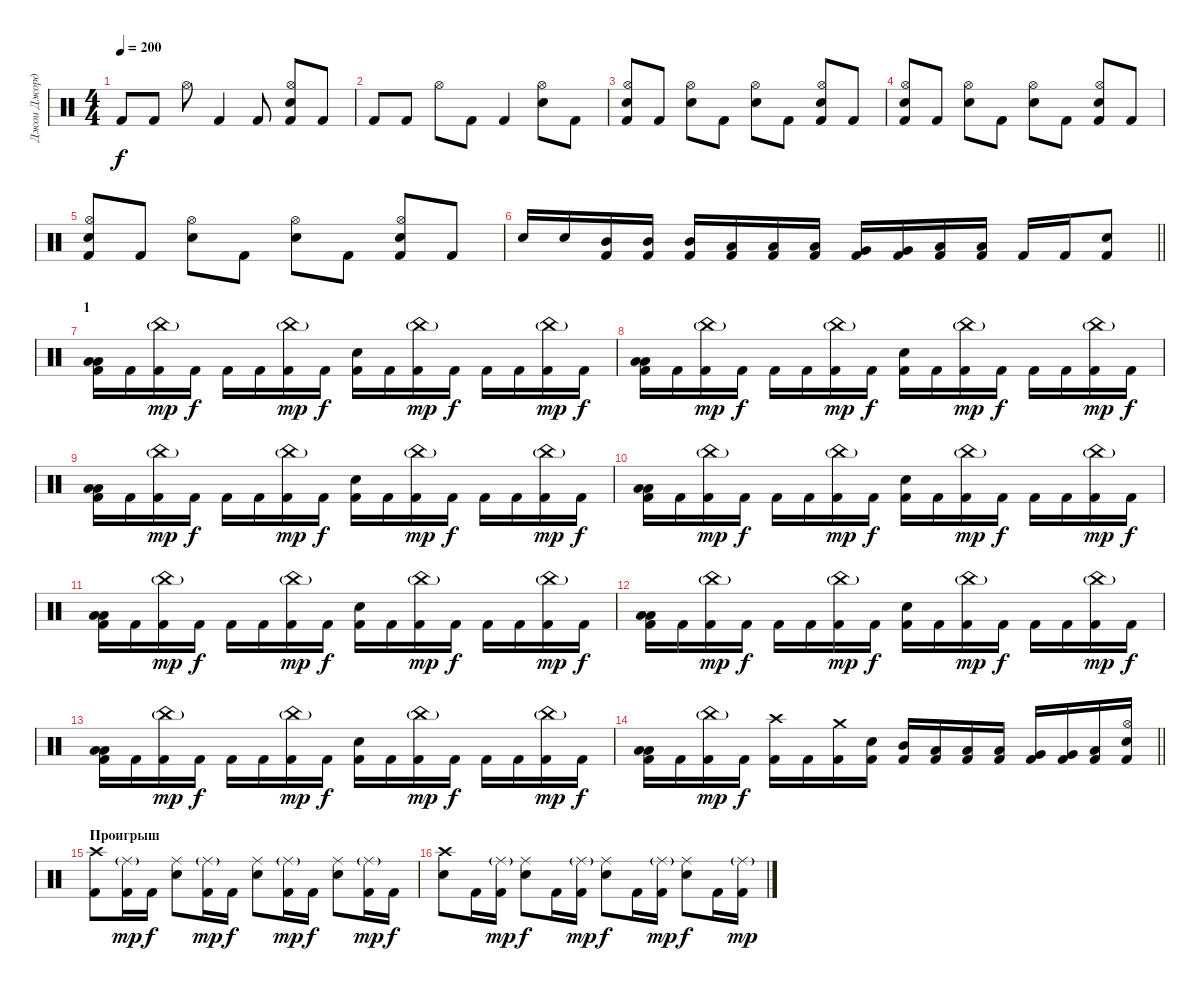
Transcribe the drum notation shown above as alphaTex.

\track ("Джои Джордисон" "Джои Джорд") {instrument percussion}
\staff {score}
\articulation defaults
\ts (4 4)
\tempo 200
\clef neutral
\ks c "Kick (hit) 2".8{dy f} "Kick (hit) 2".8 "Hi-Hat (open)".8 "Kick (hit) 2".4 "Kick (hit) 2".8
("Hi-Hat (open)" "Electric Snare (hit)" "Kick (hit) 2").8 "Kick (hit) 2".8 |
"Kick (hit) 2".8 "Kick (hit) 2".8 "Hi-Hat (open)".8 "Kick (hit) 2".8 "Kick (hit) 2".4 ("Hi-Hat (open)" "Electric Snare (hit)").8 "Kick (hit) 2".8 |
("Hi-Hat (open)" "Electric Snare (hit)" "Kick (hit) 2").8 "Kick (hit) 2".8 ("Hi-Hat (open)" "Electric Snare (hit)").8 "Kick (hit) 2".8 ("Hi-Hat (open)" "Electric Snare (hit)").8 "Kick (hit) 2".8 ("Hi-Hat (open)" "Electric Snare (hit)" "Kick (hit) 2").8 "Kick (hit) 2".8 |
("Hi-Hat (open)" "Electric Snare (hit)" "Kick (hit) 2").8 "Kick (hit) 2".8 ("Hi-Hat (open)" "Electric Snare (hit)").8 "Kick (hit) 2".8 ("Hi-Hat (open)" "Electric Snare (hit)").8 "Kick (hit) 2".8 ("Hi-Hat (open)" "Electric Snare (hit)" "Kick (hit) 2").8 "Kick (hit) 2".8 |
("Hi-Hat (open)" "Electric Snare (hit)" "Kick (hit) 2").8 "Kick (hit) 2".8 ("Hi-Hat (open)" "Electric Snare (hit)").8 "Kick (hit) 2".8 ("Hi-Hat (open)" "Electric Snare (hit)").8 "Kick (hit) 2".8 ("Hi-Hat (open)" "Electric Snare (hit)" "Kick (hit) 2").8 "Kick (hit) 2".8 |
\barLineRight lightlight "Electric Snare (hit)".16 "Electric Snare (hit)".16
("Mid Tom (hit)" "Kick (hit) 2").16 ("Mid Tom (hit)" "Kick (hit) 2").16 ("Mid Tom (hit)" "Kick (hit) 2").16 ("Low Tom (hit)" "Kick (hit) 2").16 ("Low Tom (hit)" "Kick (hit) 2").16 ("Low Tom (hit)" "Kick (hit) 2").16 ("Very Low Tom (hit)" "Kick (hit) 2").16 ("Very Low Tom (hit)" "Kick (hit) 2").16 ("Low Floor Tom (hit)" "Kick (hit) 2").16 ("Low Floor Tom (hit)" "Kick (hit) 2").16 "Kick (hit) 2".16 "Kick (hit) 2".16 ("Electric Snare (hit)" "Kick (hit) 2").8 |
\section ("" "1")
("Low Floor Tom (hit)" "Low Tom (hit)" "Kick (hit) 2").16 "Kick (hit) 2".16 ("China (hit)"{g} "Kick (hit) 2").16{dy mp} "Kick (hit) 2".16{dy f} "Kick (hit) 2".16 "Kick (hit) 2".16 ("China (hit)"{g} "Kick (hit) 2").16{dy mp} "Kick (hit) 2".16{dy f} ("Electric Snare (hit)" "Kick (hit) 2").16 "Kick (hit) 2".16 ("China (hit)"{g} "Kick (hit) 2").16{dy mp} "Kick (hit) 2".16{dy f} "Kick (hit) 2".16 "Kick (hit) 2".16 ("China (hit)"{g} "Kick (hit) 2").16{dy mp} "Kick (hit) 2".16{dy f} |
("Low Floor Tom (hit)" "Low Tom (hit)" "Kick (hit) 2").16 "Kick (hit) 2".16 ("China (hit)"{g} "Kick (hit) 2").16{dy mp} "Kick (hit) 2".16{dy f} "Kick (hit) 2".16 "Kick (hit) 2".16 ("China (hit)"{g} "Kick (hit) 2").16{dy mp} "Kick (hit) 2".16{dy f} ("Electric Snare (hit)" "Kick (hit) 2").16 "Kick (hit) 2".16 ("China (hit)"{g} "Kick (hit) 2").16{dy mp} "Kick (hit) 2".16{dy f} "Kick (hit) 2".16 "Kick (hit) 2".16 ("China (hit)"{g} "Kick (hit) 2").16{dy mp} "Kick (hit) 2".16{dy f} |
("Low Floor Tom (hit)" "Low Tom (hit)" "Kick (hit) 2").16 "Kick (hit) 2".16 ("China (hit)"{g} "Kick (hit) 2").16{dy mp} "Kick (hit) 2".16{dy f} "Kick (hit) 2".16 "Kick (hit) 2".16 ("China (hit)"{g} "Kick (hit) 2").16{dy mp} "Kick (hit) 2".16{dy f} ("Electric Snare (hit)" "Kick (hit) 2").16 "Kick (hit) 2".16 ("China (hit)"{g} "Kick (hit) 2").16{dy mp} "Kick (hit) 2".16{dy f} "Kick (hit) 2".16 "Kick (hit) 2".16 ("China (hit)"{g} "Kick (hit) 2").16{dy mp} "Kick (hit) 2".16{dy f} |
("Low Floor Tom (hit)" "Low Tom (hit)" "Kick (hit) 2").16 "Kick (hit) 2".16 ("China (hit)"{g} "Kick (hit) 2").16{dy mp} "Kick (hit) 2".16{dy f} "Kick (hit) 2".16 "Kick (hit) 2".16 ("China (hit)"{g} "Kick (hit) 2").16{dy mp} "Kick (hit) 2".16{dy f} ("Electric Snare (hit)" "Kick (hit) 2").16 "Kick (hit) 2".16 ("China (hit)"{g} "Kick (hit) 2").16{dy mp} "Kick (hit) 2".16{dy f} "Kick (hit) 2".16 "Kick (hit) 2".16 ("China (hit)"{g} "Kick (hit) 2").16{dy mp} "Kick (hit) 2".16{dy f} |
("Low Floor Tom (hit)" "Low Tom (hit)" "Kick (hit) 2").16 "Kick (hit) 2".16 ("China (hit)"{g} "Kick (hit) 2").16{dy mp} "Kick (hit) 2".16{dy f} "Kick (hit) 2".16 "Kick (hit) 2".16 ("China (hit)"{g} "Kick (hit) 2").16{dy mp} "Kick (hit) 2".16{dy f} ("Electric Snare (hit)" "Kick (hit) 2").16 "Kick (hit) 2".16 ("China (hit)"{g} "Kick (hit) 2").16{dy mp} "Kick (hit) 2".16{dy f} "Kick (hit) 2".16 "Kick (hit) 2".16 ("China (hit)"{g} "Kick (hit) 2").16{dy mp} "Kick (hit) 2".16{dy f} |
("Low Floor Tom (hit)" "Low Tom (hit)" "Kick (hit) 2").16 "Kick (hit) 2".16 ("China (hit)"{g} "Kick (hit) 2").16{dy mp} "Kick (hit) 2".16{dy f} "Kick (hit) 2".16 "Kick (hit) 2".16 ("China (hit)"{g} "Kick (hit) 2").16{dy mp} "Kick (hit) 2".16{dy f} ("Electric Snare (hit)" "Kick (hit) 2").16 "Kick (hit) 2".16 ("China (hit)"{g} "Kick (hit) 2").16{dy mp} "Kick (hit) 2".16{dy f} "Kick (hit) 2".16 "Kick (hit) 2".16 ("China (hit)"{g} "Kick (hit) 2").16{dy mp} "Kick (hit) 2".16{dy f} |
("Low Floor Tom (hit)" "Low Tom (hit)" "Kick (hit) 2").16 "Kick (hit) 2".16 ("China (hit)"{g} "Kick (hit) 2").16{dy mp} "Kick (hit) 2".16{dy f} "Kick (hit) 2".16 "Kick (hit) 2".16 ("China (hit)"{g} "Kick (hit) 2").16{dy mp} "Kick (hit) 2".16{dy f} ("Electric Snare (hit)" "Kick (hit) 2").16 "Kick (hit) 2".16 ("China (hit)"{g} "Kick (hit) 2").16{dy mp} "Kick (hit) 2".16{dy f} "Kick (hit) 2".16 "Kick (hit) 2".16 ("China (hit)"{g} "Kick (hit) 2").16{dy mp} "Kick (hit) 2".16{dy f} |
\barLineRight lightlight
("Low Floor Tom (hit)" "Low Tom (hit)" "Kick (hit) 2").16 "Kick (hit) 2".16 ("China (hit)"{g} "Kick (hit) 2").16{dy mp} "Kick (hit) 2".16{dy f} ("Crash high (hit)" "Kick (hit) 2").16 "Kick (hit) 2".16 ("Crash medium (hit)" "Kick (hit) 2").16 ("Electric Snare (hit)" "Kick (hit) 2").16 ("Mid Tom (hit)" "Kick (hit) 2").16 ("Low Tom (hit)" "Kick (hit) 2").16 ("Low Tom (hit)" "Kick (hit) 2").16 ("Low Tom (hit)" "Kick (hit) 2").16 ("Very Low Tom (hit)" "Kick (hit) 2").16 ("Very Low Tom (hit)" "Kick (hit) 2").16 ("Low Floor Tom (hit)" "Kick (hit) 2").16 ("Hi-Hat (open)" "Electric Snare (hit)" "Kick (hit) 2").16 |
\section ("" "Проигрыш")
("Crash high (hit)" "Kick (hit) 2").8 ("Ride (middle)"{g} "Kick (hit) 2").16{dy mp} "Kick (hit) 2".16{dy f} ("Ride (middle)" "Electric Snare (hit)").8 ("Ride (middle)"{g} "Kick (hit) 2").16{dy mp} "Kick (hit) 2".16{dy f} ("Ride (middle)" "Electric Snare (hit)").8 ("Ride (middle)"{g} "Kick (hit) 2").16{dy mp} "Kick (hit) 2".16{dy f} ("Ride (middle)" "Electric Snare (hit)").8 ("Ride (middle)"{g} "Kick (hit) 2").16{dy mp} "Kick (hit) 2".16{dy f} |
("Crash high (hit)" "Electric Snare (hit)").8 "Kick (hit) 2".16 ("Ride (middle)"{g} "Kick (hit) 2").16{dy mp} ("Ride (middle)" "Electric Snare (hit)").8{dy f} "Kick (hit) 2".16 ("Ride (middle)"{g} "Kick (hit) 2").16{dy mp} ("Ride (middle)" "Electric Snare (hit)").8{dy f} "Kick (hit) 2".16 ("Ride (middle)"{g} "Kick (hit) 2").16{dy mp} ("Ride (middle)" "Electric Snare (hit)").8{dy f} "Kick (hit) 2".16 ("Ride (middle)"{g} "Kick (hit) 2").16{dy mp}
